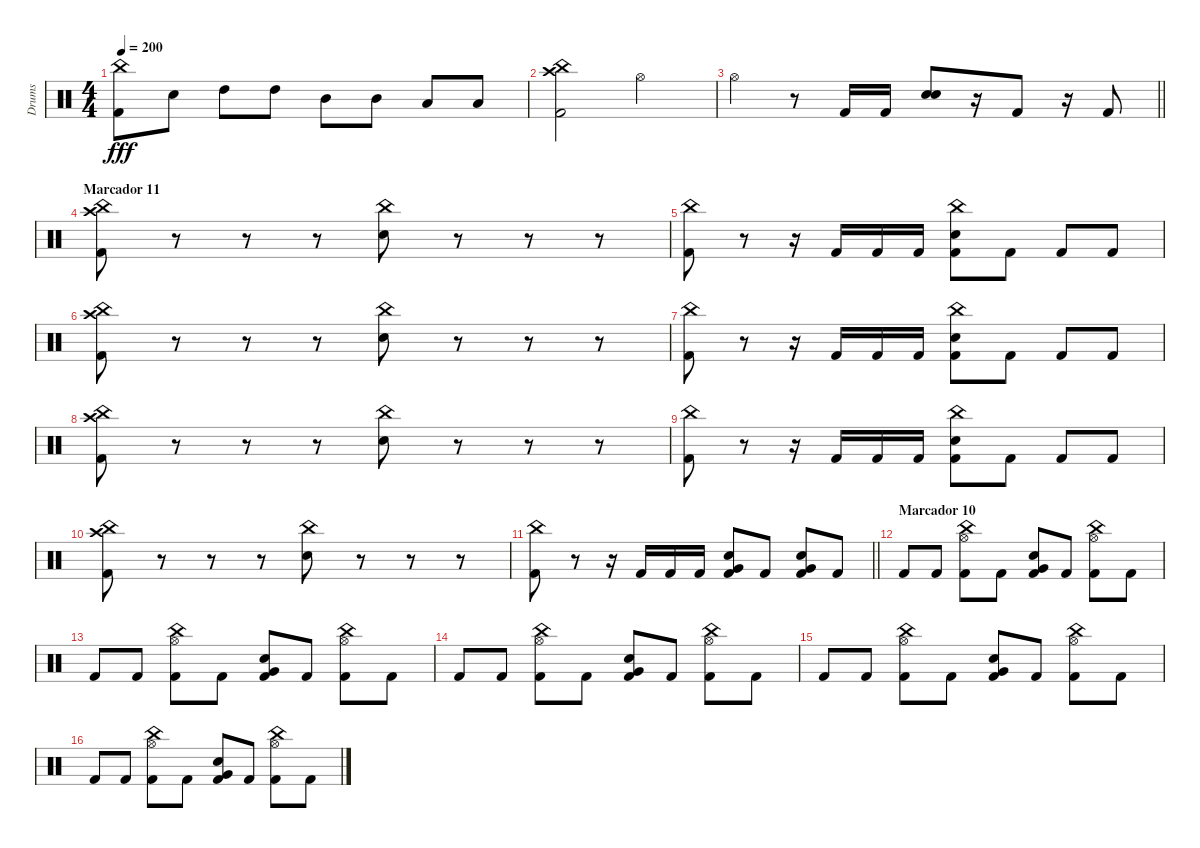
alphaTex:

\track ("Drums" "Drums") {instrument percussion}
\staff {score}
\articulation defaults
\ts (4 4)
\tempo 200
\clef neutral
\ks c
("China (hit)" "Kick (hit) 2").8{dy fff} "Electric Snare (hit)".8 "High Tom (hit)".8 "High Tom (hit)".8 "Mid Tom (hit)".8 "Mid Tom (hit)".8 "Low Tom (hit)".8 "Low Tom (hit)".8 |
("China (hit)" "Crash high (hit)" "Kick (hit) 2").2 "Hi-Hat (open)".2 |
\barLineRight lightlight "Hi-Hat (open)".4
r.8 "Kick (hit) 2".16 "Kick (hit) 2".16 ("Electric Snare (hit)" "Electric Snare (hit)").8 r.16 "Kick (hit) 2".8 r.16 "Kick (hit) 2".8 |
\section ("" "Marcador 11")
("China (hit)" "Crash high (hit)" "Kick (hit) 2").8 r.8 r.8 r.8 ("China (hit)" "Electric Snare (hit)").8 r.8 r.8 r.8 |
("China (hit)" "Kick (hit) 2").8 r.8 r.16 "Kick (hit) 2".16 "Kick (hit) 2".16 "Kick (hit) 2".16 ("China (hit)" "Electric Snare (hit)" "Kick (hit) 2").8 "Kick (hit) 2".8 "Kick (hit) 2".8 "Kick (hit) 2".8 |
("China (hit)" "Crash high (hit)" "Kick (hit) 2").8 r.8 r.8 r.8 ("China (hit)" "Electric Snare (hit)").8 r.8 r.8 r.8 |
("China (hit)" "Kick (hit) 2").8 r.8 r.16 "Kick (hit) 2".16 "Kick (hit) 2".16 "Kick (hit) 2".16 ("China (hit)" "Electric Snare (hit)" "Kick (hit) 2").8 "Kick (hit) 2".8 "Kick (hit) 2".8 "Kick (hit) 2".8 |
("China (hit)" "Crash high (hit)" "Kick (hit) 2").8 r.8 r.8 r.8 ("China (hit)" "Electric Snare (hit)").8 r.8 r.8 r.8 |
("China (hit)" "Kick (hit) 2").8 r.8 r.16 "Kick (hit) 2".16 "Kick (hit) 2".16 "Kick (hit) 2".16 ("China (hit)" "Electric Snare (hit)" "Kick (hit) 2").8 "Kick (hit) 2".8 "Kick (hit) 2".8 "Kick (hit) 2".8 |
("China (hit)" "Crash high (hit)" "Kick (hit) 2").8 r.8 r.8 r.8 ("China (hit)" "Electric Snare (hit)").8 r.8 r.8 r.8 |
\barLineRight lightlight
("China (hit)" "Kick (hit) 2").8 r.8 r.16 "Kick (hit) 2".16 "Kick (hit) 2".16 "Kick (hit) 2".16 ("Very Low Tom (hit)" "Electric Snare (hit)" "Kick (hit) 2").8 "Kick (hit) 2".8 ("Very Low Tom (hit)" "Electric Snare (hit)" "Kick (hit) 2").8 "Kick (hit) 2".8 |
\section ("" "Marcador 10")
"Kick (hit) 2".8 "Kick (hit) 2".8 ("China (hit)" "Hi-Hat (open)" "Kick (hit) 2").8 "Kick (hit) 2".8 ("Very Low Tom (hit)" "Electric Snare (hit)" "Kick (hit) 2").8 "Kick (hit) 2".8 ("China (hit)" "Hi-Hat (open)" "Kick (hit) 2").8 "Kick (hit) 2".8 |
"Kick (hit) 2".8 "Kick (hit) 2".8 ("China (hit)" "Hi-Hat (open)" "Kick (hit) 2").8 "Kick (hit) 2".8 ("Very Low Tom (hit)" "Electric Snare (hit)" "Kick (hit) 2").8 "Kick (hit) 2".8 ("China (hit)" "Hi-Hat (open)" "Kick (hit) 2").8 "Kick (hit) 2".8 |
"Kick (hit) 2".8 "Kick (hit) 2".8 ("China (hit)" "Hi-Hat (open)" "Kick (hit) 2").8 "Kick (hit) 2".8 ("Very Low Tom (hit)" "Electric Snare (hit)" "Kick (hit) 2").8 "Kick (hit) 2".8 ("China (hit)" "Hi-Hat (open)" "Kick (hit) 2").8 "Kick (hit) 2".8 |
"Kick (hit) 2".8 "Kick (hit) 2".8 ("China (hit)" "Hi-Hat (open)" "Kick (hit) 2").8 "Kick (hit) 2".8 ("Very Low Tom (hit)" "Electric Snare (hit)" "Kick (hit) 2").8 "Kick (hit) 2".8 ("China (hit)" "Hi-Hat (open)" "Kick (hit) 2").8 "Kick (hit) 2".8 |
"Kick (hit) 2".8 "Kick (hit) 2".8 ("China (hit)" "Hi-Hat (open)" "Kick (hit) 2").8 "Kick (hit) 2".8 ("Very Low Tom (hit)" "Electric Snare (hit)" "Kick (hit) 2").8 "Kick (hit) 2".8 ("China (hit)" "Hi-Hat (open)" "Kick (hit) 2").8 "Kick (hit) 2".8
